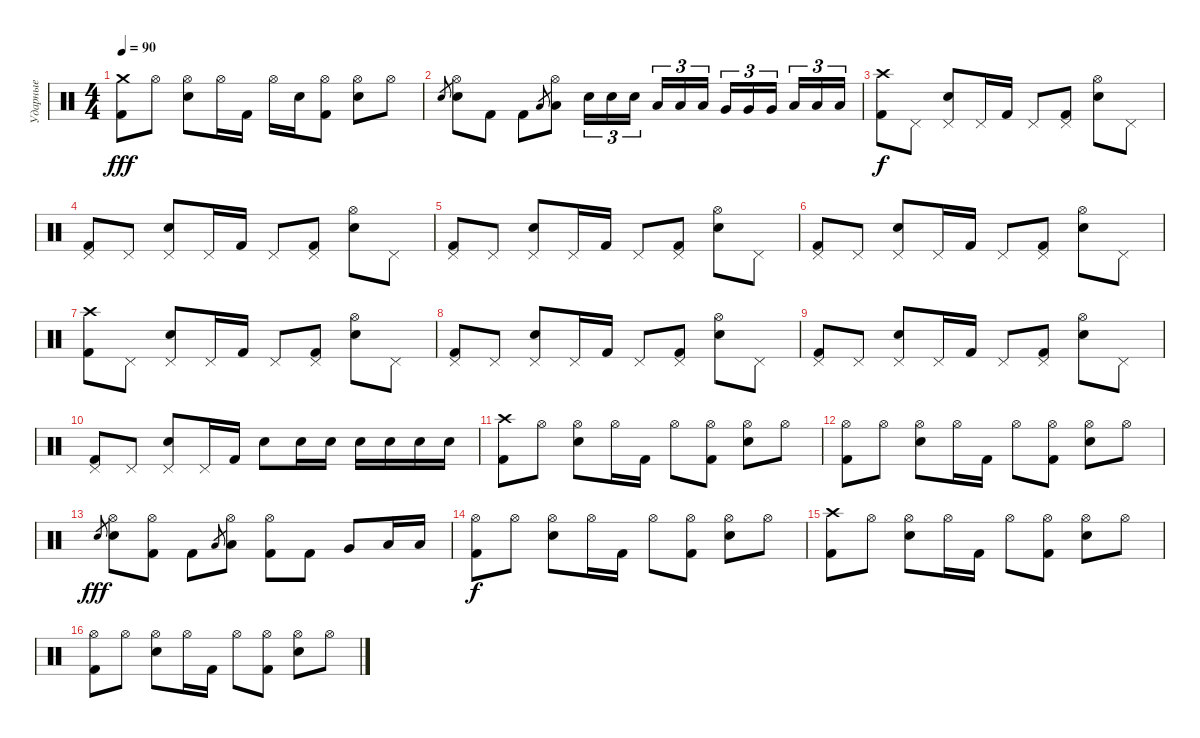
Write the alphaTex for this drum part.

\track ("Ударные" "Ударные") {instrument percussion}
\staff {score}
\articulation defaults
\ts (4 4)
\tempo 90
\clef neutral
\ks c
("Crash medium (hit)" "Kick (hit) 2").8{dy fff} "Hi-Hat (open)".8 ("Hi-Hat (open)" "Snare (hit) 2").8 "Hi-Hat (open)".16 "Kick (hit) 2".16 "Hi-Hat (open)".16 "Snare (hit) 2".16 ("Hi-Hat (open)" "Kick (hit) 2").8 ("Hi-Hat (open)" "Snare (hit) 2").8 "Hi-Hat (open)".8 |
"Snare (hit) 2".8{gr} ("Hi-Hat (open)" "Snare (hit) 2").8 "Kick (hit) 2".8 "Kick (hit) 2".8 "Low Tom (hit)".8{gr} ("Hi-Hat (open)" "Low Tom (hit)").8 "Snare (hit) 2".16{tu (3 2)} "Snare (hit) 2".16{tu (3 2)} "Snare (hit) 2".16{tu (3 2) beam splitsecondary} "Low Tom (hit)".16{tu (3 2)} "Low Tom (hit)".16{tu (3 2)} "Low Tom (hit)".16{tu (3 2)} "Very Low Tom (hit)".16{tu (3 2)} "Very Low Tom (hit)".16{tu (3 2)} "Very Low Tom (hit)".16{tu (3 2) beam splitsecondary} "Low Floor Tom (hit)".16{tu (3 2)} "Low Floor Tom (hit)".16{tu (3 2)} "Low Floor Tom (hit)".16{tu (3 2)} |
("Crash high (hit)" "Kick (hit) 2").8{dy f} "Pedal Hi-Hat (hit)".8 ("Pedal Hi-Hat (hit)" "Snare (hit) 2").8 "Pedal Hi-Hat (hit)".16 "Kick (hit) 2".16 "Pedal Hi-Hat (hit)".8 ("Pedal Hi-Hat (hit)" "Kick (hit) 2").8 ("Hi-Hat (open)" "Snare (hit) 2").8 "Pedal Hi-Hat (hit)".8 |
("Pedal Hi-Hat (hit)" "Kick (hit) 2").8 "Pedal Hi-Hat (hit)".8 ("Pedal Hi-Hat (hit)" "Snare (hit) 2").8 "Pedal Hi-Hat (hit)".16 "Kick (hit) 2".16 "Pedal Hi-Hat (hit)".8 ("Pedal Hi-Hat (hit)" "Kick (hit) 2").8 ("Hi-Hat (open)" "Snare (hit) 2").8 "Pedal Hi-Hat (hit)".8 |
("Pedal Hi-Hat (hit)" "Kick (hit) 2").8 "Pedal Hi-Hat (hit)".8 ("Pedal Hi-Hat (hit)" "Snare (hit) 2").8 "Pedal Hi-Hat (hit)".16 "Kick (hit) 2".16 "Pedal Hi-Hat (hit)".8 ("Pedal Hi-Hat (hit)" "Kick (hit) 2").8 ("Hi-Hat (open)" "Snare (hit) 2").8 "Pedal Hi-Hat (hit)".8 |
("Pedal Hi-Hat (hit)" "Kick (hit) 2").8 "Pedal Hi-Hat (hit)".8 ("Pedal Hi-Hat (hit)" "Snare (hit) 2").8 "Pedal Hi-Hat (hit)".16 "Kick (hit) 2".16 "Pedal Hi-Hat (hit)".8 ("Pedal Hi-Hat (hit)" "Kick (hit) 2").8 ("Hi-Hat (open)" "Snare (hit) 2").8 "Pedal Hi-Hat (hit)".8 |
("Crash high (hit)" "Kick (hit) 2").8 "Pedal Hi-Hat (hit)".8 ("Pedal Hi-Hat (hit)" "Snare (hit) 2").8 "Pedal Hi-Hat (hit)".16 "Kick (hit) 2".16 "Pedal Hi-Hat (hit)".8 ("Pedal Hi-Hat (hit)" "Kick (hit) 2").8 ("Hi-Hat (open)" "Snare (hit) 2").8 "Pedal Hi-Hat (hit)".8 |
("Pedal Hi-Hat (hit)" "Kick (hit) 2").8 "Pedal Hi-Hat (hit)".8 ("Pedal Hi-Hat (hit)" "Snare (hit) 2").8 "Pedal Hi-Hat (hit)".16 "Kick (hit) 2".16 "Pedal Hi-Hat (hit)".8 ("Pedal Hi-Hat (hit)" "Kick (hit) 2").8 ("Hi-Hat (open)" "Snare (hit) 2").8 "Pedal Hi-Hat (hit)".8 |
("Pedal Hi-Hat (hit)" "Kick (hit) 2").8 "Pedal Hi-Hat (hit)".8 ("Pedal Hi-Hat (hit)" "Snare (hit) 2").8 "Pedal Hi-Hat (hit)".16 "Kick (hit) 2".16 "Pedal Hi-Hat (hit)".8 ("Pedal Hi-Hat (hit)" "Kick (hit) 2").8 ("Hi-Hat (open)" "Snare (hit) 2").8 "Pedal Hi-Hat (hit)".8 |
("Pedal Hi-Hat (hit)" "Kick (hit) 2").8 "Pedal Hi-Hat (hit)".8 ("Pedal Hi-Hat (hit)" "Snare (hit) 2").8 "Pedal Hi-Hat (hit)".16 "Kick (hit) 2".16 "Snare (hit) 2".8 "Snare (hit) 2".16 "Snare (hit) 2".16 "Snare (hit) 2".16 "Snare (hit) 2".16 "Snare (hit) 2".16 "Snare (hit) 2".16 |
("Crash high (hit)" "Kick (hit) 2").8 "Hi-Hat (open)".8 ("Hi-Hat (open)" "Snare (hit) 2").8 "Hi-Hat (open)".16 "Kick (hit) 2".16 "Hi-Hat (open)".8 ("Hi-Hat (open)" "Kick (hit) 2").8 ("Hi-Hat (open)" "Snare (hit) 2").8 "Hi-Hat (open)".8 |
("Hi-Hat (open)" "Kick (hit) 2").8 "Hi-Hat (open)".8 ("Hi-Hat (open)" "Snare (hit) 2").8 "Hi-Hat (open)".16 "Kick (hit) 2".16 "Hi-Hat (open)".8 ("Hi-Hat (open)" "Kick (hit) 2").8 ("Hi-Hat (open)" "Snare (hit) 2").8 "Hi-Hat (open)".8 |
"Snare (hit) 2".8{gr dy fff} ("Hi-Hat (open)" "Snare (hit) 2").8 ("Hi-Hat (open)" "Kick (hit) 2").8 "Kick (hit) 2".8 "Low Tom (hit)".8{gr} ("Hi-Hat (open)" "Low Tom (hit)").8 ("Hi-Hat (open)" "Kick (hit) 2").8 "Kick (hit) 2".8 "Very Low Tom (hit)".8 "Low Floor Tom (hit)".16 "Low Floor Tom (hit)".16 |
("Hi-Hat (open)" "Kick (hit) 2").8{dy f} "Hi-Hat (open)".8 ("Hi-Hat (open)" "Snare (hit) 2").8 "Hi-Hat (open)".16 "Kick (hit) 2".16 "Hi-Hat (open)".8 ("Hi-Hat (open)" "Kick (hit) 2").8 ("Hi-Hat (open)" "Snare (hit) 2").8 "Hi-Hat (open)".8 |
("Crash high (hit)" "Kick (hit) 2").8 "Hi-Hat (open)".8 ("Hi-Hat (open)" "Snare (hit) 2").8 "Hi-Hat (open)".16 "Kick (hit) 2".16 "Hi-Hat (open)".8 ("Hi-Hat (open)" "Kick (hit) 2").8 ("Hi-Hat (open)" "Snare (hit) 2").8 "Hi-Hat (open)".8 |
("Hi-Hat (open)" "Kick (hit) 2").8 "Hi-Hat (open)".8 ("Hi-Hat (open)" "Snare (hit) 2").8 "Hi-Hat (open)".16 "Kick (hit) 2".16 "Hi-Hat (open)".8 ("Hi-Hat (open)" "Kick (hit) 2").8 ("Hi-Hat (open)" "Snare (hit) 2").8 "Hi-Hat (open)".8
